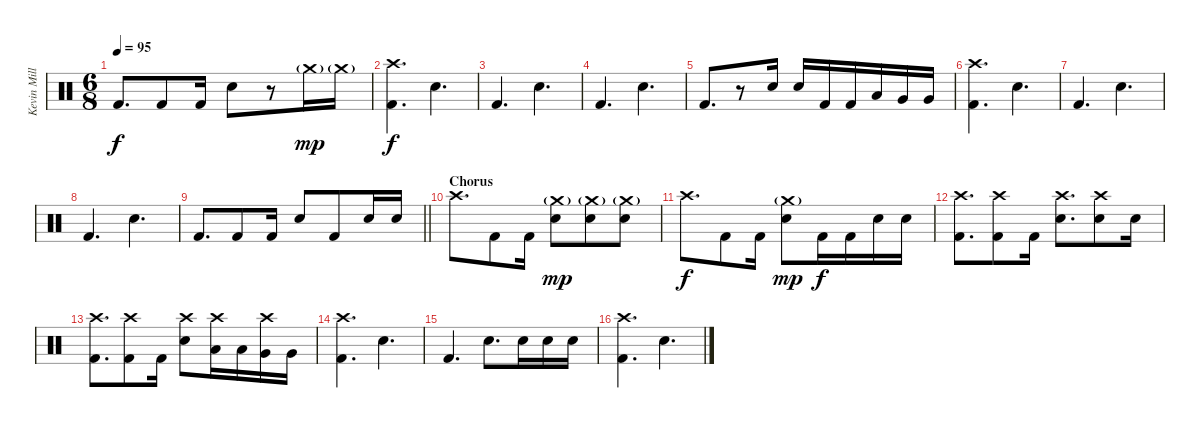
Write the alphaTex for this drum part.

\track ("Kevin Miller (Drums)" "Kevin Mill") {instrument percussion}
\staff {score}
\articulation defaults
\ts (6 8)
\tempo 95
\clef neutral
\ks c "Kick (hit) 2".8{d dy f} "Kick (hit) 2".8 "Kick (hit) 2".16 "Electric Snare (hit)".8
r.8 "Crash medium (hit)"{g}.16{dy mp} "Crash medium (hit)"{g}.16 |
("Crash high (hit)" "Kick (hit) 2").4{d dy f} "Electric Snare (hit)".4{d} |
"Kick (hit) 2".4{d} "Electric Snare (hit)".4{d} |
"Kick (hit) 2".4{d} "Electric Snare (hit)".4{d} |
"Kick (hit) 2".8{d} r.8 "Electric Snare (hit)".16 "Electric Snare (hit)".16 "Kick (hit) 2".16 "Kick (hit) 2".16 "Low Tom (hit)".16 "Very Low Tom (hit)".16 "Very Low Tom (hit)".16 |
("Crash high (hit)" "Kick (hit) 2").4{d} "Electric Snare (hit)".4{d} |
"Kick (hit) 2".4{d} "Electric Snare (hit)".4{d} |
"Kick (hit) 2".4{d} "Electric Snare (hit)".4{d} |
\barLineRight lightlight "Kick (hit) 2".8{d} "Kick (hit) 2".8 "Kick (hit) 2".16 "Electric Snare (hit)".8 "Kick (hit) 2".8 "Electric Snare (hit)".16 "Electric Snare (hit)".16
|
\section ("" "Chorus")
"Crash high (hit)".8{d} "Kick (hit) 2".8 "Kick (hit) 2".16 ("Electric Snare (hit)" "Crash medium (hit)"{g}).8{dy mp} ("Electric Snare (hit)" "Crash medium (hit)"{g}).8 ("Electric Snare (hit)" "Crash medium (hit)"{g}).8 |
"Crash high (hit)".8{d dy f} "Kick (hit) 2".8 "Kick (hit) 2".16 ("Electric Snare (hit)" "Crash medium (hit)"{g}).8{dy mp} "Kick (hit) 2".16{dy f} "Kick (hit) 2".16 "Electric Snare (hit)".16 "Electric Snare (hit)".16 |
("Kick (hit) 2" "Crash high (hit)").8{d} ("Kick (hit) 2" "Crash high (hit)").8 "Kick (hit) 2".16 ("Electric Snare (hit)" "Crash high (hit)").8{d} ("Electric Snare (hit)" "Crash high (hit)").8 "Electric Snare (hit)".16 |
("Kick (hit) 2" "Crash high (hit)").8{d} ("Kick (hit) 2" "Crash high (hit)").8 "Kick (hit) 2".16 ("Electric Snare (hit)" "Crash high (hit)").8 ("Low Tom (hit)" "Crash high (hit)").16 "Low Tom (hit)".16 ("Very Low Tom (hit)" "Crash high (hit)").16 "Very Low Tom (hit)".16 |
("Crash high (hit)" "Kick (hit) 2").4{d} "Electric Snare (hit)".4{d} |
"Kick (hit) 2".4{d} "Electric Snare (hit)".8{d} "Electric Snare (hit)".16 "Electric Snare (hit)".16 "Electric Snare (hit)".16 |
("Crash high (hit)" "Kick (hit) 2").4{d} "Electric Snare (hit)".4{d}
